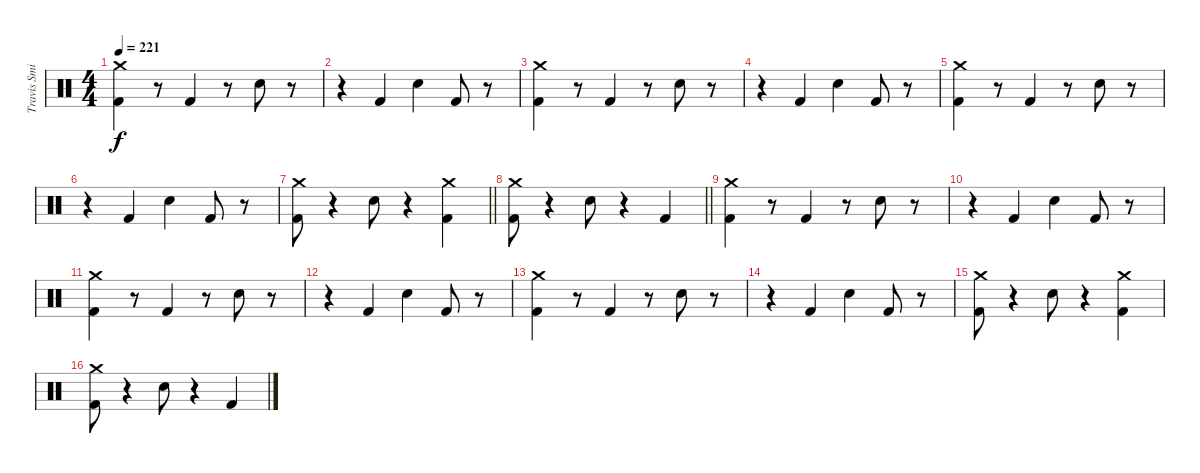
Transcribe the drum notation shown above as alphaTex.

\track ("Travis Smith" "Travis Smi") {instrument percussion}
\staff {score}
\articulation defaults
\ts (4 4)
\tempo 221
\clef neutral
\ks c
("Crash medium (hit)" "Kick (hit) 2").4{dy f} r.8 "Kick (hit) 2".4 r.8 "Electric Snare (hit)".8 r.8 |
r.4 "Kick (hit) 2".4 "Electric Snare (hit)".4 "Kick (hit) 2".8 r.8 |
("Crash medium (hit)" "Kick (hit) 2").4 r.8 "Kick (hit) 2".4 r.8 "Electric Snare (hit)".8 r.8 |
r.4 "Kick (hit) 2".4 "Electric Snare (hit)".4 "Kick (hit) 2".8 r.8 |
("Crash medium (hit)" "Kick (hit) 2").4 r.8 "Kick (hit) 2".4 r.8 "Electric Snare (hit)".8 r.8 |
r.4 "Kick (hit) 2".4 "Electric Snare (hit)".4 "Kick (hit) 2".8 r.8 |
\barLineRight lightlight
("Crash medium (hit)" "Kick (hit) 2").8 r.4 "Electric Snare (hit)".8 r.4 ("Crash medium (hit)" "Kick (hit) 2").4 |
\barLineRight lightlight
("Crash medium (hit)" "Kick (hit) 2").8 r.4 "Electric Snare (hit)".8 r.4 "Kick (hit) 2".4 |
("Crash medium (hit)" "Kick (hit) 2").4 r.8 "Kick (hit) 2".4 r.8 "Electric Snare (hit)".8 r.8 |
r.4 "Kick (hit) 2".4 "Electric Snare (hit)".4 "Kick (hit) 2".8 r.8 |
("Crash medium (hit)" "Kick (hit) 2").4 r.8 "Kick (hit) 2".4 r.8 "Electric Snare (hit)".8 r.8 |
r.4 "Kick (hit) 2".4 "Electric Snare (hit)".4 "Kick (hit) 2".8 r.8 |
("Crash medium (hit)" "Kick (hit) 2").4 r.8 "Kick (hit) 2".4 r.8 "Electric Snare (hit)".8 r.8 |
r.4 "Kick (hit) 2".4 "Electric Snare (hit)".4 "Kick (hit) 2".8 r.8 |
("Crash medium (hit)" "Kick (hit) 2").8 r.4 "Electric Snare (hit)".8 r.4 ("Crash medium (hit)" "Kick (hit) 2").4 |
("Crash medium (hit)" "Kick (hit) 2").8 r.4 "Electric Snare (hit)".8 r.4 "Kick (hit) 2".4
